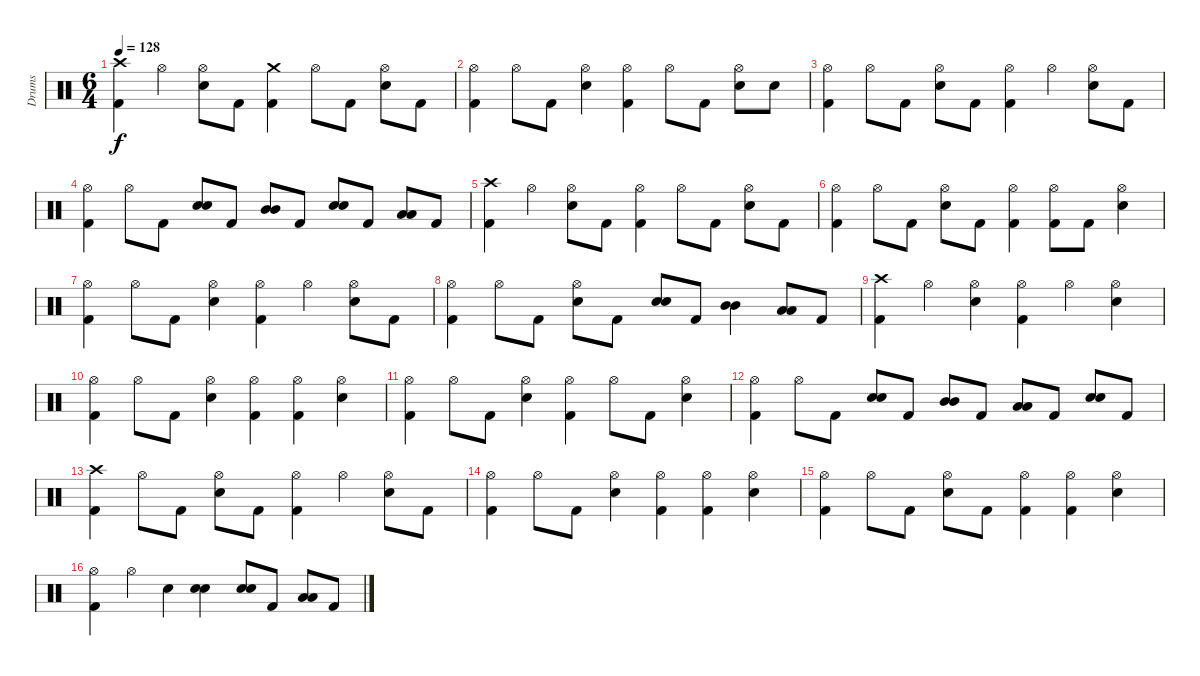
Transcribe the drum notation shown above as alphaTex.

\track ("Drums" "Drums") {instrument percussion}
\staff {score}
\articulation defaults
\ts (6 4)
\tempo 128
\clef neutral
\ks c
("Crash high (hit)" "Kick (hit) 2").4{dy f} "Hi-Hat (open)".4 ("Hi-Hat (open)" "Electric Snare (hit)").8 "Kick (hit) 2".8 ("Crash medium (hit)" "Kick (hit) 2").4 "Hi-Hat (open)".8 "Kick (hit) 2".8 ("Hi-Hat (open)" "Electric Snare (hit)").8 "Kick (hit) 2".8 |
("Hi-Hat (open)" "Kick (hit) 2").4 "Hi-Hat (open)".8 "Kick (hit) 2".8 ("Hi-Hat (open)" "Electric Snare (hit)").4 ("Hi-Hat (open)" "Kick (hit) 2").4 "Hi-Hat (open)".8 "Kick (hit) 2".8 ("Hi-Hat (open)" "Electric Snare (hit)").8 "Electric Snare (hit)".8 |
("Hi-Hat (open)" "Kick (hit) 2").4 "Hi-Hat (open)".8 "Kick (hit) 2".8 ("Hi-Hat (open)" "Electric Snare (hit)").8 "Kick (hit) 2".8 ("Hi-Hat (open)" "Kick (hit) 2").4 "Hi-Hat (open)".4 ("Hi-Hat (open)" "Electric Snare (hit)").8 "Kick (hit) 2".8 |
("Hi-Hat (open)" "Kick (hit) 2").4 "Hi-Hat (open)".8 "Kick (hit) 2".8 ("Electric Snare (hit)" "Electric Snare (hit)").8{bu 60} "Kick (hit) 2".8 ("Mid Tom (hit)" "Mid Tom (hit)").8{bu 120} "Kick (hit) 2".8 ("Electric Snare (hit)" "Electric Snare (hit)").8{bu 120} "Kick (hit) 2".8 ("Low Tom (hit)" "Low Tom (hit)").8{bu 120} "Kick (hit) 2".8 |
("Crash high (hit)" "Kick (hit) 2").4 "Hi-Hat (open)".4 ("Hi-Hat (open)" "Electric Snare (hit)").8 "Kick (hit) 2".8 ("Hi-Hat (open)" "Kick (hit) 2").4 "Hi-Hat (open)".8 "Kick (hit) 2".8 ("Hi-Hat (open)" "Electric Snare (hit)").8 "Kick (hit) 2".8 |
("Hi-Hat (open)" "Kick (hit) 2").4 "Hi-Hat (open)".8 "Kick (hit) 2".8 ("Hi-Hat (open)" "Electric Snare (hit)").8 "Kick (hit) 2".8 ("Hi-Hat (open)" "Kick (hit) 2").4 ("Hi-Hat (open)" "Kick (hit) 2").8 "Kick (hit) 2".8 ("Hi-Hat (open)" "Electric Snare (hit)").4 |
("Hi-Hat (open)" "Kick (hit) 2").4 "Hi-Hat (open)".8 "Kick (hit) 2".8 ("Hi-Hat (open)" "Electric Snare (hit)").4 ("Hi-Hat (open)" "Kick (hit) 2").4 "Hi-Hat (open)".4 ("Hi-Hat (open)" "Electric Snare (hit)").8 "Kick (hit) 2".8 |
("Hi-Hat (open)" "Kick (hit) 2").4 "Hi-Hat (open)".8 "Kick (hit) 2".8 ("Hi-Hat (open)" "Electric Snare (hit)").8 "Kick (hit) 2".8 ("Electric Snare (hit)" "Electric Snare (hit)").8{bu 60} "Kick (hit) 2".8 ("Mid Tom (hit)" "Mid Tom (hit)").4{bu 60} ("Low Tom (hit)" "Low Tom (hit)").8{bu 120} "Kick (hit) 2".8 |
("Crash high (hit)" "Kick (hit) 2").4 "Hi-Hat (open)".4 ("Hi-Hat (open)" "Electric Snare (hit)").4 ("Hi-Hat (open)" "Kick (hit) 2").4 "Hi-Hat (open)".4 ("Hi-Hat (open)" "Electric Snare (hit)").4 |
("Hi-Hat (open)" "Kick (hit) 2").4 "Hi-Hat (open)".8 "Kick (hit) 2".8 ("Hi-Hat (open)" "Electric Snare (hit)").4 ("Hi-Hat (open)" "Kick (hit) 2").4 ("Hi-Hat (open)" "Kick (hit) 2").4 ("Hi-Hat (open)" "Electric Snare (hit)").4 |
("Hi-Hat (open)" "Kick (hit) 2").4 "Hi-Hat (open)".8 "Kick (hit) 2".8 ("Hi-Hat (open)" "Electric Snare (hit)").4 ("Hi-Hat (open)" "Kick (hit) 2").4 "Hi-Hat (open)".8 "Kick (hit) 2".8 ("Hi-Hat (open)" "Electric Snare (hit)").4 |
("Hi-Hat (open)" "Kick (hit) 2").4 "Hi-Hat (open)".8 "Kick (hit) 2".8 ("Electric Snare (hit)" "Electric Snare (hit)").8{bu 60} "Kick (hit) 2".8 ("Mid Tom (hit)" "Mid Tom (hit)").8{bu 120} "Kick (hit) 2".8 ("Low Tom (hit)" "Low Tom (hit)").8{bu 120} "Kick (hit) 2".8 ("Electric Snare (hit)" "Electric Snare (hit)").8{bu 120} "Kick (hit) 2".8 |
("Crash high (hit)" "Kick (hit) 2").4 "Hi-Hat (open)".8 "Kick (hit) 2".8 ("Hi-Hat (open)" "Electric Snare (hit)").8 "Kick (hit) 2".8 ("Hi-Hat (open)" "Kick (hit) 2").4 "Hi-Hat (open)".4 ("Hi-Hat (open)" "Electric Snare (hit)").8 "Kick (hit) 2".8 |
("Hi-Hat (open)" "Kick (hit) 2").4 "Hi-Hat (open)".8 "Kick (hit) 2".8 ("Hi-Hat (open)" "Electric Snare (hit)").4 ("Hi-Hat (open)" "Kick (hit) 2").4 ("Hi-Hat (open)" "Kick (hit) 2").4 ("Hi-Hat (open)" "Electric Snare (hit)").4 |
("Hi-Hat (open)" "Kick (hit) 2").4 "Hi-Hat (open)".8 "Kick (hit) 2".8 ("Hi-Hat (open)" "Electric Snare (hit)").8 "Kick (hit) 2".8 ("Hi-Hat (open)" "Kick (hit) 2").4 ("Hi-Hat (open)" "Kick (hit) 2").4 ("Hi-Hat (open)" "Electric Snare (hit)").4 |
("Hi-Hat (open)" "Kick (hit) 2").4 "Hi-Hat (open)".4 "Electric Snare (hit)".4 ("Electric Snare (hit)" "Electric Snare (hit)").4{bu 120} ("Electric Snare (hit)" "Electric Snare (hit)").8{bu 120} "Kick (hit) 2".8 ("Low Tom (hit)" "Low Tom (hit)").8{bu 120} "Kick (hit) 2".8
